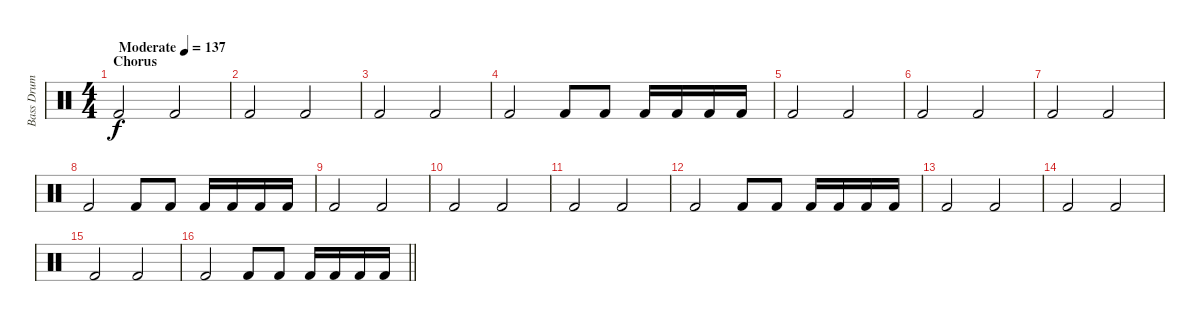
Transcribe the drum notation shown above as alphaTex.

\track ("Bass Drum" "Bass Drum") {instrument percussion}
\staff {score}
\articulation defaults
\ts (4 4)
\section ("" "Chorus")
\tempo (137 "Moderate")
\clef neutral
\ks c "Kick (hit) 2".2{dy f} "Kick (hit) 2".2
|
"Kick (hit) 2".2 "Kick (hit) 2".2 |
"Kick (hit) 2".2 "Kick (hit) 2".2 |
"Kick (hit) 2".2 "Kick (hit) 2".8 "Kick (hit) 2".8 "Kick (hit) 2".16 "Kick (hit) 2".16 "Kick (hit) 2".16 "Kick (hit) 2".16 |
"Kick (hit) 2".2 "Kick (hit) 2".2 |
"Kick (hit) 2".2 "Kick (hit) 2".2 |
"Kick (hit) 2".2 "Kick (hit) 2".2 |
"Kick (hit) 2".2 "Kick (hit) 2".8 "Kick (hit) 2".8 "Kick (hit) 2".16 "Kick (hit) 2".16 "Kick (hit) 2".16 "Kick (hit) 2".16 |
"Kick (hit) 2".2 "Kick (hit) 2".2 |
"Kick (hit) 2".2 "Kick (hit) 2".2 |
"Kick (hit) 2".2 "Kick (hit) 2".2 |
"Kick (hit) 2".2 "Kick (hit) 2".8 "Kick (hit) 2".8 "Kick (hit) 2".16 "Kick (hit) 2".16 "Kick (hit) 2".16 "Kick (hit) 2".16 |
"Kick (hit) 2".2 "Kick (hit) 2".2 |
"Kick (hit) 2".2 "Kick (hit) 2".2 |
"Kick (hit) 2".2 "Kick (hit) 2".2 |
\barLineRight lightlight "Kick (hit) 2".2 "Kick (hit) 2".8 "Kick (hit) 2".8 "Kick (hit) 2".16 "Kick (hit) 2".16 "Kick (hit) 2".16 "Kick (hit) 2".16
